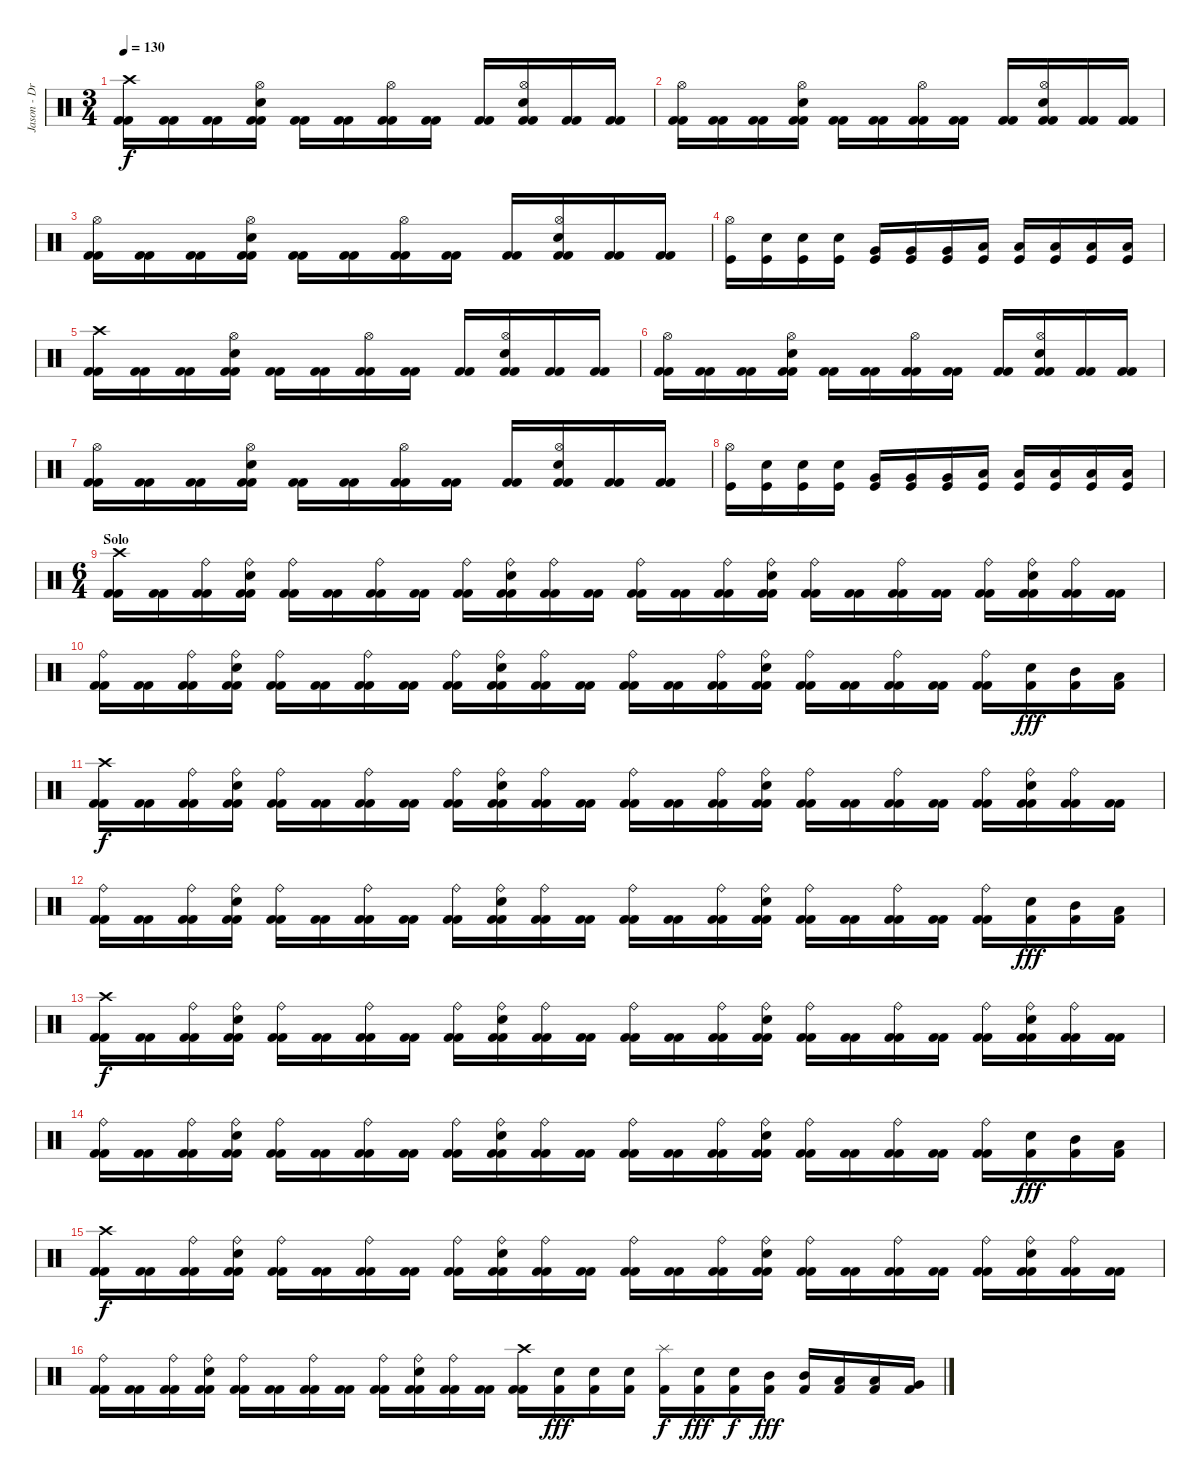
\track ("Jason - Drums" "Jason - Dr") {instrument percussion}
\staff {score}
\articulation defaults
\ts (3 4)
\tempo 130
\clef neutral
\ks c
("Crash high (hit)" "Kick (hit) 2" "Kick (hit) 2").16{dy f} ("Kick (hit) 2" "Kick (hit) 2").16 ("Kick (hit) 2" "Kick (hit) 2").16 ("Hi-Hat (open)" "Electric Snare (hit)" "Kick (hit) 2" "Kick (hit) 2").16 ("Kick (hit) 2" "Kick (hit) 2").16 ("Kick (hit) 2" "Kick (hit) 2").16 ("Hi-Hat (open)" "Kick (hit) 2" "Kick (hit) 2").16 ("Kick (hit) 2" "Kick (hit) 2").16 ("Kick (hit) 2" "Kick (hit) 2").16 ("Hi-Hat (open)" "Electric Snare (hit)" "Kick (hit) 2" "Kick (hit) 2").16 ("Kick (hit) 2" "Kick (hit) 2").16 ("Kick (hit) 2" "Kick (hit) 2").16 |
("Hi-Hat (open)" "Kick (hit) 2" "Kick (hit) 2").16 ("Kick (hit) 2" "Kick (hit) 2").16 ("Kick (hit) 2" "Kick (hit) 2").16 ("Hi-Hat (open)" "Electric Snare (hit)" "Kick (hit) 2" "Kick (hit) 2").16 ("Kick (hit) 2" "Kick (hit) 2").16 ("Kick (hit) 2" "Kick (hit) 2").16 ("Hi-Hat (open)" "Kick (hit) 2" "Kick (hit) 2").16 ("Kick (hit) 2" "Kick (hit) 2").16 ("Kick (hit) 2" "Kick (hit) 2").16 ("Hi-Hat (open)" "Electric Snare (hit)" "Kick (hit) 2" "Kick (hit) 2").16 ("Kick (hit) 2" "Kick (hit) 2").16 ("Kick (hit) 2" "Kick (hit) 2").16 |
("Hi-Hat (open)" "Kick (hit) 2" "Kick (hit) 2").16 ("Kick (hit) 2" "Kick (hit) 2").16 ("Kick (hit) 2" "Kick (hit) 2").16 ("Hi-Hat (open)" "Electric Snare (hit)" "Kick (hit) 2" "Kick (hit) 2").16 ("Kick (hit) 2" "Kick (hit) 2").16 ("Kick (hit) 2" "Kick (hit) 2").16 ("Hi-Hat (open)" "Kick (hit) 2" "Kick (hit) 2").16 ("Kick (hit) 2" "Kick (hit) 2").16 ("Kick (hit) 2" "Kick (hit) 2").16 ("Hi-Hat (open)" "Electric Snare (hit)" "Kick (hit) 2" "Kick (hit) 2").16 ("Kick (hit) 2" "Kick (hit) 2").16 ("Kick (hit) 2" "Kick (hit) 2").16 |
("Hi-Hat (open)" "Kick (hit)").16 ("Electric Snare (hit)" "Kick (hit)").16 ("Electric Snare (hit)" "Kick (hit)").16 ("Electric Snare (hit)" "Kick (hit)").16 ("Very Low Tom (hit)" "Kick (hit)").16 ("Very Low Tom (hit)" "Kick (hit)").16 ("Very Low Tom (hit)" "Kick (hit)").16 ("Low Floor Tom (hit)" "Kick (hit)").16 ("Low Floor Tom (hit)" "Kick (hit)").16 ("Low Floor Tom (hit)" "Kick (hit)").16 ("Low Floor Tom (hit)" "Kick (hit)").16 ("Low Floor Tom (hit)" "Kick (hit)").16 |
("Crash high (hit)" "Kick (hit) 2" "Kick (hit) 2").16 ("Kick (hit) 2" "Kick (hit) 2").16 ("Kick (hit) 2" "Kick (hit) 2").16 ("Hi-Hat (open)" "Electric Snare (hit)" "Kick (hit) 2" "Kick (hit) 2").16 ("Kick (hit) 2" "Kick (hit) 2").16 ("Kick (hit) 2" "Kick (hit) 2").16 ("Hi-Hat (open)" "Kick (hit) 2" "Kick (hit) 2").16 ("Kick (hit) 2" "Kick (hit) 2").16 ("Kick (hit) 2" "Kick (hit) 2").16 ("Hi-Hat (open)" "Electric Snare (hit)" "Kick (hit) 2" "Kick (hit) 2").16 ("Kick (hit) 2" "Kick (hit) 2").16 ("Kick (hit) 2" "Kick (hit) 2").16 |
("Hi-Hat (open)" "Kick (hit) 2" "Kick (hit) 2").16 ("Kick (hit) 2" "Kick (hit) 2").16 ("Kick (hit) 2" "Kick (hit) 2").16 ("Hi-Hat (open)" "Electric Snare (hit)" "Kick (hit) 2" "Kick (hit) 2").16 ("Kick (hit) 2" "Kick (hit) 2").16 ("Kick (hit) 2" "Kick (hit) 2").16 ("Hi-Hat (open)" "Kick (hit) 2" "Kick (hit) 2").16 ("Kick (hit) 2" "Kick (hit) 2").16 ("Kick (hit) 2" "Kick (hit) 2").16 ("Hi-Hat (open)" "Electric Snare (hit)" "Kick (hit) 2" "Kick (hit) 2").16 ("Kick (hit) 2" "Kick (hit) 2").16 ("Kick (hit) 2" "Kick (hit) 2").16 |
("Hi-Hat (open)" "Kick (hit) 2" "Kick (hit) 2").16 ("Kick (hit) 2" "Kick (hit) 2").16 ("Kick (hit) 2" "Kick (hit) 2").16 ("Hi-Hat (open)" "Electric Snare (hit)" "Kick (hit) 2" "Kick (hit) 2").16 ("Kick (hit) 2" "Kick (hit) 2").16 ("Kick (hit) 2" "Kick (hit) 2").16 ("Hi-Hat (open)" "Kick (hit) 2" "Kick (hit) 2").16 ("Kick (hit) 2" "Kick (hit) 2").16 ("Kick (hit) 2" "Kick (hit) 2").16 ("Hi-Hat (open)" "Electric Snare (hit)" "Kick (hit) 2" "Kick (hit) 2").16 ("Kick (hit) 2" "Kick (hit) 2").16 ("Kick (hit) 2" "Kick (hit) 2").16 |
("Hi-Hat (open)" "Kick (hit)").16 ("Electric Snare (hit)" "Kick (hit)").16 ("Electric Snare (hit)" "Kick (hit)").16 ("Electric Snare (hit)" "Kick (hit)").16 ("Very Low Tom (hit)" "Kick (hit)").16 ("Very Low Tom (hit)" "Kick (hit)").16 ("Very Low Tom (hit)" "Kick (hit)").16 ("Low Floor Tom (hit)" "Kick (hit)").16 ("Low Floor Tom (hit)" "Kick (hit)").16 ("Low Floor Tom (hit)" "Kick (hit)").16 ("Low Floor Tom (hit)" "Kick (hit)").16 ("Low Floor Tom (hit)" "Kick (hit)").16 |
\ts (6 4)
\section ("" "Solo")
("Crash high (hit)" "Kick (hit) 2" "Kick (hit) 2").16 ("Kick (hit) 2" "Kick (hit) 2").16 ("Ride (bell)" "Kick (hit) 2" "Kick (hit) 2").16 ("Ride (bell)" "Electric Snare (hit)" "Kick (hit) 2" "Kick (hit) 2").16 ("Ride (bell)" "Kick (hit) 2" "Kick (hit) 2").16 ("Kick (hit) 2" "Kick (hit) 2").16 ("Ride (bell)" "Kick (hit) 2" "Kick (hit) 2").16 ("Kick (hit) 2" "Kick (hit) 2").16 ("Ride (bell)" "Kick (hit) 2" "Kick (hit) 2").16 ("Ride (bell)" "Electric Snare (hit)" "Kick (hit) 2" "Kick (hit) 2").16 ("Ride (bell)" "Kick (hit) 2" "Kick (hit) 2").16 ("Kick (hit) 2" "Kick (hit) 2").16 ("Ride (bell)" "Kick (hit) 2" "Kick (hit) 2").16 ("Kick (hit) 2" "Kick (hit) 2").16 ("Ride (bell)" "Kick (hit) 2" "Kick (hit) 2").16 ("Ride (bell)" "Electric Snare (hit)" "Kick (hit) 2" "Kick (hit) 2").16 ("Ride (bell)" "Kick (hit) 2" "Kick (hit) 2").16 ("Kick (hit) 2" "Kick (hit) 2").16 ("Ride (bell)" "Kick (hit) 2" "Kick (hit) 2").16 ("Kick (hit) 2" "Kick (hit) 2").16 ("Ride (bell)" "Kick (hit) 2" "Kick (hit) 2").16 ("Ride (bell)" "Electric Snare (hit)" "Kick (hit) 2" "Kick (hit) 2").16 ("Ride (bell)" "Kick (hit) 2" "Kick (hit) 2").16 ("Kick (hit) 2" "Kick (hit) 2").16 |
("Ride (bell)" "Kick (hit) 2" "Kick (hit) 2").16 ("Kick (hit) 2" "Kick (hit) 2").16 ("Ride (bell)" "Kick (hit) 2" "Kick (hit) 2").16 ("Ride (bell)" "Electric Snare (hit)" "Kick (hit) 2" "Kick (hit) 2").16 ("Ride (bell)" "Kick (hit) 2" "Kick (hit) 2").16 ("Kick (hit) 2" "Kick (hit) 2").16 ("Ride (bell)" "Kick (hit) 2" "Kick (hit) 2").16 ("Kick (hit) 2" "Kick (hit) 2").16 ("Ride (bell)" "Kick (hit) 2" "Kick (hit) 2").16 ("Ride (bell)" "Electric Snare (hit)" "Kick (hit) 2" "Kick (hit) 2").16 ("Ride (bell)" "Kick (hit) 2" "Kick (hit) 2").16 ("Kick (hit) 2" "Kick (hit) 2").16 ("Ride (bell)" "Kick (hit) 2" "Kick (hit) 2").16 ("Kick (hit) 2" "Kick (hit) 2").16 ("Ride (bell)" "Kick (hit) 2" "Kick (hit) 2").16 ("Ride (bell)" "Electric Snare (hit)" "Kick (hit) 2" "Kick (hit) 2").16 ("Ride (bell)" "Kick (hit) 2" "Kick (hit) 2").16 ("Kick (hit) 2" "Kick (hit) 2").16 ("Ride (bell)" "Kick (hit) 2" "Kick (hit) 2").16 ("Kick (hit) 2" "Kick (hit) 2").16 ("Ride (bell)" "Kick (hit) 2" "Kick (hit) 2").16 ("Electric Snare (hit)" "Kick (hit) 2").16{dy fff} ("Mid Tom (hit)" "Kick (hit) 2").16 ("Low Tom (hit)" "Kick (hit) 2").16 |
("Crash high (hit)" "Kick (hit) 2" "Kick (hit) 2").16{dy f} ("Kick (hit) 2" "Kick (hit) 2").16 ("Ride (bell)" "Kick (hit) 2" "Kick (hit) 2").16 ("Ride (bell)" "Electric Snare (hit)" "Kick (hit) 2" "Kick (hit) 2").16 ("Ride (bell)" "Kick (hit) 2" "Kick (hit) 2").16 ("Kick (hit) 2" "Kick (hit) 2").16 ("Ride (bell)" "Kick (hit) 2" "Kick (hit) 2").16 ("Kick (hit) 2" "Kick (hit) 2").16 ("Ride (bell)" "Kick (hit) 2" "Kick (hit) 2").16 ("Ride (bell)" "Electric Snare (hit)" "Kick (hit) 2" "Kick (hit) 2").16 ("Ride (bell)" "Kick (hit) 2" "Kick (hit) 2").16 ("Kick (hit) 2" "Kick (hit) 2").16 ("Ride (bell)" "Kick (hit) 2" "Kick (hit) 2").16 ("Kick (hit) 2" "Kick (hit) 2").16 ("Ride (bell)" "Kick (hit) 2" "Kick (hit) 2").16 ("Ride (bell)" "Electric Snare (hit)" "Kick (hit) 2" "Kick (hit) 2").16 ("Ride (bell)" "Kick (hit) 2" "Kick (hit) 2").16 ("Kick (hit) 2" "Kick (hit) 2").16 ("Ride (bell)" "Kick (hit) 2" "Kick (hit) 2").16 ("Kick (hit) 2" "Kick (hit) 2").16 ("Ride (bell)" "Kick (hit) 2" "Kick (hit) 2").16 ("Ride (bell)" "Electric Snare (hit)" "Kick (hit) 2" "Kick (hit) 2").16 ("Ride (bell)" "Kick (hit) 2" "Kick (hit) 2").16 ("Kick (hit) 2" "Kick (hit) 2").16 |
("Ride (bell)" "Kick (hit) 2" "Kick (hit) 2").16 ("Kick (hit) 2" "Kick (hit) 2").16 ("Ride (bell)" "Kick (hit) 2" "Kick (hit) 2").16 ("Ride (bell)" "Electric Snare (hit)" "Kick (hit) 2" "Kick (hit) 2").16 ("Ride (bell)" "Kick (hit) 2" "Kick (hit) 2").16 ("Kick (hit) 2" "Kick (hit) 2").16 ("Ride (bell)" "Kick (hit) 2" "Kick (hit) 2").16 ("Kick (hit) 2" "Kick (hit) 2").16 ("Ride (bell)" "Kick (hit) 2" "Kick (hit) 2").16 ("Ride (bell)" "Electric Snare (hit)" "Kick (hit) 2" "Kick (hit) 2").16 ("Ride (bell)" "Kick (hit) 2" "Kick (hit) 2").16 ("Kick (hit) 2" "Kick (hit) 2").16 ("Ride (bell)" "Kick (hit) 2" "Kick (hit) 2").16 ("Kick (hit) 2" "Kick (hit) 2").16 ("Ride (bell)" "Kick (hit) 2" "Kick (hit) 2").16 ("Ride (bell)" "Electric Snare (hit)" "Kick (hit) 2" "Kick (hit) 2").16 ("Ride (bell)" "Kick (hit) 2" "Kick (hit) 2").16 ("Kick (hit) 2" "Kick (hit) 2").16 ("Ride (bell)" "Kick (hit) 2" "Kick (hit) 2").16 ("Kick (hit) 2" "Kick (hit) 2").16 ("Ride (bell)" "Kick (hit) 2" "Kick (hit) 2").16 ("Electric Snare (hit)" "Kick (hit) 2").16{dy fff} ("Mid Tom (hit)" "Kick (hit) 2").16 ("Low Tom (hit)" "Kick (hit) 2").16 |
("Crash high (hit)" "Kick (hit) 2" "Kick (hit) 2").16{dy f} ("Kick (hit) 2" "Kick (hit) 2").16 ("Ride (bell)" "Kick (hit) 2" "Kick (hit) 2").16 ("Ride (bell)" "Electric Snare (hit)" "Kick (hit) 2" "Kick (hit) 2").16 ("Ride (bell)" "Kick (hit) 2" "Kick (hit) 2").16 ("Kick (hit) 2" "Kick (hit) 2").16 ("Ride (bell)" "Kick (hit) 2" "Kick (hit) 2").16 ("Kick (hit) 2" "Kick (hit) 2").16 ("Ride (bell)" "Kick (hit) 2" "Kick (hit) 2").16 ("Ride (bell)" "Electric Snare (hit)" "Kick (hit) 2" "Kick (hit) 2").16 ("Ride (bell)" "Kick (hit) 2" "Kick (hit) 2").16 ("Kick (hit) 2" "Kick (hit) 2").16 ("Ride (bell)" "Kick (hit) 2" "Kick (hit) 2").16 ("Kick (hit) 2" "Kick (hit) 2").16 ("Ride (bell)" "Kick (hit) 2" "Kick (hit) 2").16 ("Ride (bell)" "Electric Snare (hit)" "Kick (hit) 2" "Kick (hit) 2").16 ("Ride (bell)" "Kick (hit) 2" "Kick (hit) 2").16 ("Kick (hit) 2" "Kick (hit) 2").16 ("Ride (bell)" "Kick (hit) 2" "Kick (hit) 2").16 ("Kick (hit) 2" "Kick (hit) 2").16 ("Ride (bell)" "Kick (hit) 2" "Kick (hit) 2").16 ("Ride (bell)" "Electric Snare (hit)" "Kick (hit) 2" "Kick (hit) 2").16 ("Ride (bell)" "Kick (hit) 2" "Kick (hit) 2").16 ("Kick (hit) 2" "Kick (hit) 2").16 |
("Ride (bell)" "Kick (hit) 2" "Kick (hit) 2").16 ("Kick (hit) 2" "Kick (hit) 2").16 ("Ride (bell)" "Kick (hit) 2" "Kick (hit) 2").16 ("Ride (bell)" "Electric Snare (hit)" "Kick (hit) 2" "Kick (hit) 2").16 ("Ride (bell)" "Kick (hit) 2" "Kick (hit) 2").16 ("Kick (hit) 2" "Kick (hit) 2").16 ("Ride (bell)" "Kick (hit) 2" "Kick (hit) 2").16 ("Kick (hit) 2" "Kick (hit) 2").16 ("Ride (bell)" "Kick (hit) 2" "Kick (hit) 2").16 ("Ride (bell)" "Electric Snare (hit)" "Kick (hit) 2" "Kick (hit) 2").16 ("Ride (bell)" "Kick (hit) 2" "Kick (hit) 2").16 ("Kick (hit) 2" "Kick (hit) 2").16 ("Ride (bell)" "Kick (hit) 2" "Kick (hit) 2").16 ("Kick (hit) 2" "Kick (hit) 2").16 ("Ride (bell)" "Kick (hit) 2" "Kick (hit) 2").16 ("Ride (bell)" "Electric Snare (hit)" "Kick (hit) 2" "Kick (hit) 2").16 ("Ride (bell)" "Kick (hit) 2" "Kick (hit) 2").16 ("Kick (hit) 2" "Kick (hit) 2").16 ("Ride (bell)" "Kick (hit) 2" "Kick (hit) 2").16 ("Kick (hit) 2" "Kick (hit) 2").16 ("Ride (bell)" "Kick (hit) 2" "Kick (hit) 2").16 ("Electric Snare (hit)" "Kick (hit) 2").16{dy fff} ("Mid Tom (hit)" "Kick (hit) 2").16 ("Low Tom (hit)" "Kick (hit) 2").16 |
("Crash high (hit)" "Kick (hit) 2" "Kick (hit) 2").16{dy f} ("Kick (hit) 2" "Kick (hit) 2").16 ("Ride (bell)" "Kick (hit) 2" "Kick (hit) 2").16 ("Ride (bell)" "Electric Snare (hit)" "Kick (hit) 2" "Kick (hit) 2").16 ("Ride (bell)" "Kick (hit) 2" "Kick (hit) 2").16 ("Kick (hit) 2" "Kick (hit) 2").16 ("Ride (bell)" "Kick (hit) 2" "Kick (hit) 2").16 ("Kick (hit) 2" "Kick (hit) 2").16 ("Ride (bell)" "Kick (hit) 2" "Kick (hit) 2").16 ("Ride (bell)" "Electric Snare (hit)" "Kick (hit) 2" "Kick (hit) 2").16 ("Ride (bell)" "Kick (hit) 2" "Kick (hit) 2").16 ("Kick (hit) 2" "Kick (hit) 2").16 ("Ride (bell)" "Kick (hit) 2" "Kick (hit) 2").16 ("Kick (hit) 2" "Kick (hit) 2").16 ("Ride (bell)" "Kick (hit) 2" "Kick (hit) 2").16 ("Ride (bell)" "Electric Snare (hit)" "Kick (hit) 2" "Kick (hit) 2").16 ("Ride (bell)" "Kick (hit) 2" "Kick (hit) 2").16 ("Kick (hit) 2" "Kick (hit) 2").16 ("Ride (bell)" "Kick (hit) 2" "Kick (hit) 2").16 ("Kick (hit) 2" "Kick (hit) 2").16 ("Ride (bell)" "Kick (hit) 2" "Kick (hit) 2").16 ("Ride (bell)" "Electric Snare (hit)" "Kick (hit) 2" "Kick (hit) 2").16 ("Ride (bell)" "Kick (hit) 2" "Kick (hit) 2").16 ("Kick (hit) 2" "Kick (hit) 2").16 |
("Ride (bell)" "Kick (hit) 2" "Kick (hit) 2").16 ("Kick (hit) 2" "Kick (hit) 2").16 ("Ride (bell)" "Kick (hit) 2" "Kick (hit) 2").16 ("Ride (bell)" "Electric Snare (hit)" "Kick (hit) 2" "Kick (hit) 2").16 ("Ride (bell)" "Kick (hit) 2" "Kick (hit) 2").16 ("Kick (hit) 2" "Kick (hit) 2").16 ("Ride (bell)" "Kick (hit) 2" "Kick (hit) 2").16 ("Kick (hit) 2" "Kick (hit) 2").16 ("Ride (bell)" "Kick (hit) 2" "Kick (hit) 2").16 ("Ride (bell)" "Electric Snare (hit)" "Kick (hit) 2" "Kick (hit) 2").16 ("Ride (bell)" "Kick (hit) 2" "Kick (hit) 2").16 ("Kick (hit) 2" "Kick (hit) 2").16 ("Crash high (hit)" "Kick (hit) 2" "Kick (hit) 2").16 ("Electric Snare (hit)" "Kick (hit) 2").16{dy fff} ("Electric Snare (hit)" "Kick (hit) 2").16 ("Electric Snare (hit)" "Kick (hit) 2").16 ("Splash (hit)" "Kick (hit) 2").16{dy f} ("Electric Snare (hit)" "Kick (hit) 2").16{dy fff} ("Electric Snare (hit)" "Kick (hit) 2").16{dy f} ("Mid Tom (hit)" "Kick (hit) 2").16{dy fff} ("Mid Tom (hit)" "Kick (hit) 2").16 ("Low Tom (hit)" "Kick (hit) 2").16 ("Low Tom (hit)" "Kick (hit) 2").16 ("Very Low Tom (hit)" "Kick (hit) 2").16
